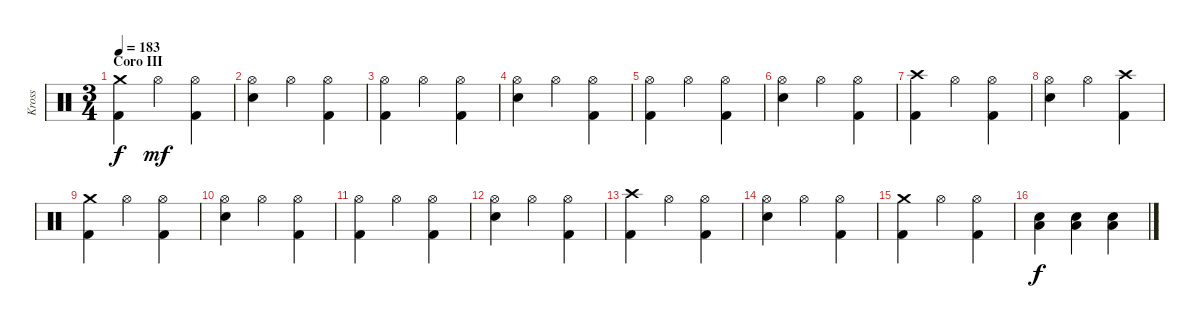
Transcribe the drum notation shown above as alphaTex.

\track ("Kross" "Kross") {instrument percussion}
\staff {score}
\articulation defaults
\ts (3 4)
\section ("" "Coro III")
\tempo 183
\clef neutral
\ks c
("Crash medium (hit)" "Kick (hit) 2").4{dy f} "Hi-Hat (open)".4{dy mf} ("Hi-Hat (open)" "Kick (hit) 2").4 |
("Hi-Hat (open)" "Electric Snare (hit)").4 "Hi-Hat (open)".4 ("Hi-Hat (open)" "Kick (hit) 2").4 |
("Hi-Hat (open)" "Kick (hit) 2").4 "Hi-Hat (open)".4 ("Hi-Hat (open)" "Kick (hit) 2").4 |
("Hi-Hat (open)" "Electric Snare (hit)").4 "Hi-Hat (open)".4 ("Hi-Hat (open)" "Kick (hit) 2").4 |
("Hi-Hat (open)" "Kick (hit) 2").4 "Hi-Hat (open)".4 ("Hi-Hat (open)" "Kick (hit) 2").4 |
("Hi-Hat (open)" "Electric Snare (hit)").4 "Hi-Hat (open)".4 ("Hi-Hat (open)" "Kick (hit) 2").4 |
("Crash high (hit)" "Kick (hit) 2").4 "Hi-Hat (open)".4 ("Hi-Hat (open)" "Kick (hit) 2").4 |
("Hi-Hat (open)" "Electric Snare (hit)").4 "Hi-Hat (open)".4 ("Crash high (hit)" "Kick (hit) 2").4 |
("Crash medium (hit)" "Kick (hit) 2").4 "Hi-Hat (open)".4 ("Hi-Hat (open)" "Kick (hit) 2").4 |
("Hi-Hat (open)" "Electric Snare (hit)").4 "Hi-Hat (open)".4 ("Hi-Hat (open)" "Kick (hit) 2").4 |
("Hi-Hat (open)" "Kick (hit) 2").4 "Hi-Hat (open)".4 ("Hi-Hat (open)" "Kick (hit) 2").4 |
("Hi-Hat (open)" "Electric Snare (hit)").4 "Hi-Hat (open)".4 ("Hi-Hat (open)" "Kick (hit) 2").4 |
("Crash high (hit)" "Kick (hit) 2").4 "Hi-Hat (open)".4 ("Hi-Hat (open)" "Kick (hit) 2").4 |
("Hi-Hat (open)" "Electric Snare (hit)").4 "Hi-Hat (open)".4 ("Hi-Hat (open)" "Kick (hit) 2").4 |
("Crash medium (hit)" "Kick (hit) 2").4 "Hi-Hat (open)".4 ("Hi-Hat (open)" "Kick (hit) 2").4 |
("Low Floor Tom (hit)" "Electric Snare (hit)").4{dy f} ("Low Floor Tom (hit)" "Electric Snare (hit)").4 ("Low Floor Tom (hit)" "Electric Snare (hit)").4
